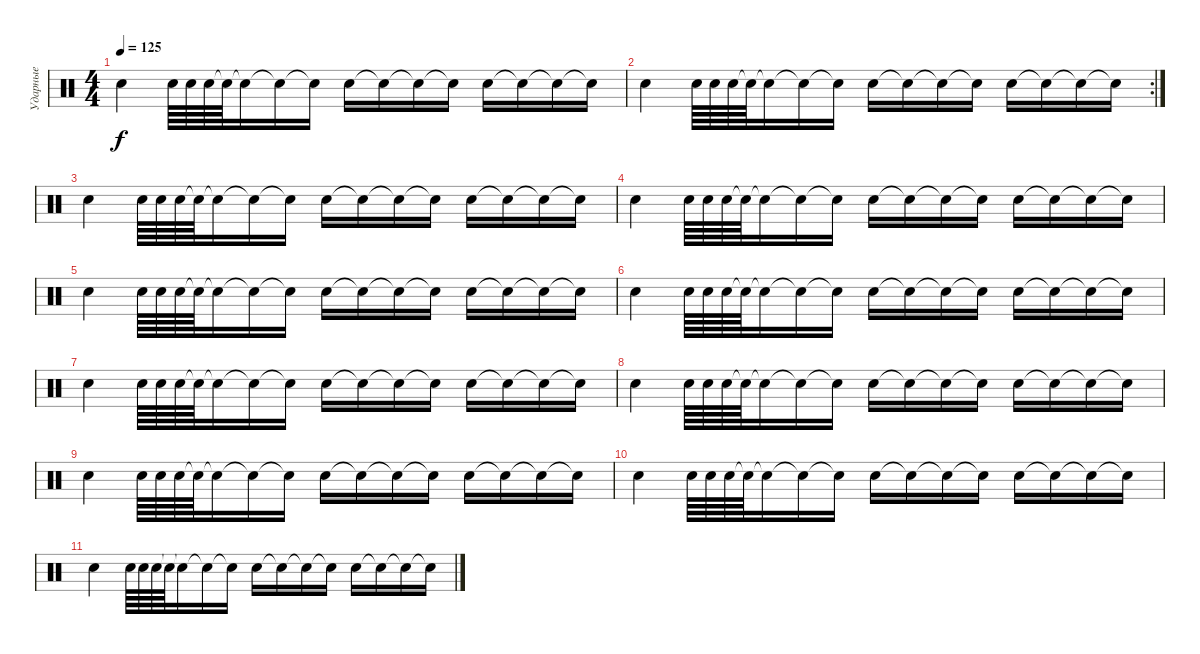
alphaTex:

\track ("Ударные" "Ударные") {instrument percussion}
\staff {score}
\articulation defaults
\ts (4 4)
\tempo 125
\clef neutral
\ks c "Electric Snare (hit)".4{dy f} "Electric Snare (hit)".64 "Electric Snare (hit)".64 "Electric Snare (hit)".64 "Snare (hit)"{t}.64 "Snare (hit)"{t}.16 "Electric Snare (hit)"{t}.16 "Electric Snare (hit)"{t}.16 "Electric Snare (hit)".16 "Snare (hit)"{t}.16 "Electric Snare (hit)"{t}.16 "Electric Snare (hit)"{t}.16 "Electric Snare (hit)".16 "Snare (hit)"{t}.16 "Electric Snare (hit)"{t}.16 "Snare (hit)"{t}.16
|
\rc 2 "Electric Snare (hit)".4 "Electric Snare (hit)".64 "Electric Snare (hit)".64 "Electric Snare (hit)".64 "Snare (hit)"{t}.64 "Snare (hit)"{t}.16 "Electric Snare (hit)"{t}.16 "Electric Snare (hit)"{t}.16 "Electric Snare (hit)".16 "Snare (hit)"{t}.16 "Electric Snare (hit)"{t}.16 "Electric Snare (hit)"{t}.16 "Electric Snare (hit)".16 "Snare (hit)"{t}.16 "Electric Snare (hit)"{t}.16 "Snare (hit)"{t}.16
|
"Electric Snare (hit)".4 "Electric Snare (hit)".64 "Electric Snare (hit)".64 "Electric Snare (hit)".64 "Snare (hit)"{t}.64 "Snare (hit)"{t}.16 "Electric Snare (hit)"{t}.16 "Electric Snare (hit)"{t}.16 "Electric Snare (hit)".16 "Snare (hit)"{t}.16 "Electric Snare (hit)"{t}.16 "Electric Snare (hit)"{t}.16 "Electric Snare (hit)".16 "Snare (hit)"{t}.16 "Electric Snare (hit)"{t}.16 "Snare (hit)"{t}.16 |
"Electric Snare (hit)".4 "Electric Snare (hit)".64 "Electric Snare (hit)".64 "Electric Snare (hit)".64 "Snare (hit)"{t}.64 "Snare (hit)"{t}.16 "Electric Snare (hit)"{t}.16 "Electric Snare (hit)"{t}.16 "Electric Snare (hit)".16 "Snare (hit)"{t}.16 "Electric Snare (hit)"{t}.16 "Electric Snare (hit)"{t}.16 "Electric Snare (hit)".16 "Snare (hit)"{t}.16 "Electric Snare (hit)"{t}.16 "Snare (hit)"{t}.16 |
"Electric Snare (hit)".4 "Electric Snare (hit)".64 "Electric Snare (hit)".64 "Electric Snare (hit)".64 "Snare (hit)"{t}.64 "Snare (hit)"{t}.16 "Electric Snare (hit)"{t}.16 "Electric Snare (hit)"{t}.16 "Electric Snare (hit)".16 "Snare (hit)"{t}.16 "Electric Snare (hit)"{t}.16 "Electric Snare (hit)"{t}.16 "Electric Snare (hit)".16 "Snare (hit)"{t}.16 "Electric Snare (hit)"{t}.16 "Snare (hit)"{t}.16 |
"Electric Snare (hit)".4 "Electric Snare (hit)".64 "Electric Snare (hit)".64 "Electric Snare (hit)".64 "Snare (hit)"{t}.64 "Snare (hit)"{t}.16 "Electric Snare (hit)"{t}.16 "Electric Snare (hit)"{t}.16 "Electric Snare (hit)".16 "Snare (hit)"{t}.16 "Electric Snare (hit)"{t}.16 "Electric Snare (hit)"{t}.16 "Electric Snare (hit)".16 "Snare (hit)"{t}.16 "Electric Snare (hit)"{t}.16 "Snare (hit)"{t}.16 |
"Electric Snare (hit)".4 "Electric Snare (hit)".64 "Electric Snare (hit)".64 "Electric Snare (hit)".64 "Snare (hit)"{t}.64 "Snare (hit)"{t}.16 "Electric Snare (hit)"{t}.16 "Electric Snare (hit)"{t}.16 "Electric Snare (hit)".16 "Snare (hit)"{t}.16 "Electric Snare (hit)"{t}.16 "Electric Snare (hit)"{t}.16 "Electric Snare (hit)".16 "Snare (hit)"{t}.16 "Electric Snare (hit)"{t}.16 "Snare (hit)"{t}.16 |
"Electric Snare (hit)".4 "Electric Snare (hit)".64 "Electric Snare (hit)".64 "Electric Snare (hit)".64 "Snare (hit)"{t}.64 "Snare (hit)"{t}.16 "Electric Snare (hit)"{t}.16 "Electric Snare (hit)"{t}.16 "Electric Snare (hit)".16 "Snare (hit)"{t}.16 "Electric Snare (hit)"{t}.16 "Electric Snare (hit)"{t}.16 "Electric Snare (hit)".16 "Snare (hit)"{t}.16 "Electric Snare (hit)"{t}.16 "Snare (hit)"{t}.16 |
"Electric Snare (hit)".4 "Electric Snare (hit)".64 "Electric Snare (hit)".64 "Electric Snare (hit)".64 "Snare (hit)"{t}.64 "Snare (hit)"{t}.16 "Electric Snare (hit)"{t}.16 "Electric Snare (hit)"{t}.16 "Electric Snare (hit)".16 "Snare (hit)"{t}.16 "Electric Snare (hit)"{t}.16 "Electric Snare (hit)"{t}.16 "Electric Snare (hit)".16 "Snare (hit)"{t}.16 "Electric Snare (hit)"{t}.16 "Snare (hit)"{t}.16 |
"Electric Snare (hit)".4 "Electric Snare (hit)".64 "Electric Snare (hit)".64 "Electric Snare (hit)".64 "Snare (hit)"{t}.64 "Snare (hit)"{t}.16 "Electric Snare (hit)"{t}.16 "Electric Snare (hit)"{t}.16 "Electric Snare (hit)".16 "Snare (hit)"{t}.16 "Electric Snare (hit)"{t}.16 "Electric Snare (hit)"{t}.16 "Electric Snare (hit)".16 "Snare (hit)"{t}.16 "Electric Snare (hit)"{t}.16 "Snare (hit)"{t}.16 |
"Electric Snare (hit)".4 "Electric Snare (hit)".64 "Electric Snare (hit)".64 "Electric Snare (hit)".64 "Snare (hit)"{t}.64 "Snare (hit)"{t}.16 "Electric Snare (hit)"{t}.16 "Electric Snare (hit)"{t}.16 "Electric Snare (hit)".16 "Snare (hit)"{t}.16 "Electric Snare (hit)"{t}.16 "Electric Snare (hit)"{t}.16 "Electric Snare (hit)".16 "Snare (hit)"{t}.16 "Electric Snare (hit)"{t}.16 "Snare (hit)"{t}.16
